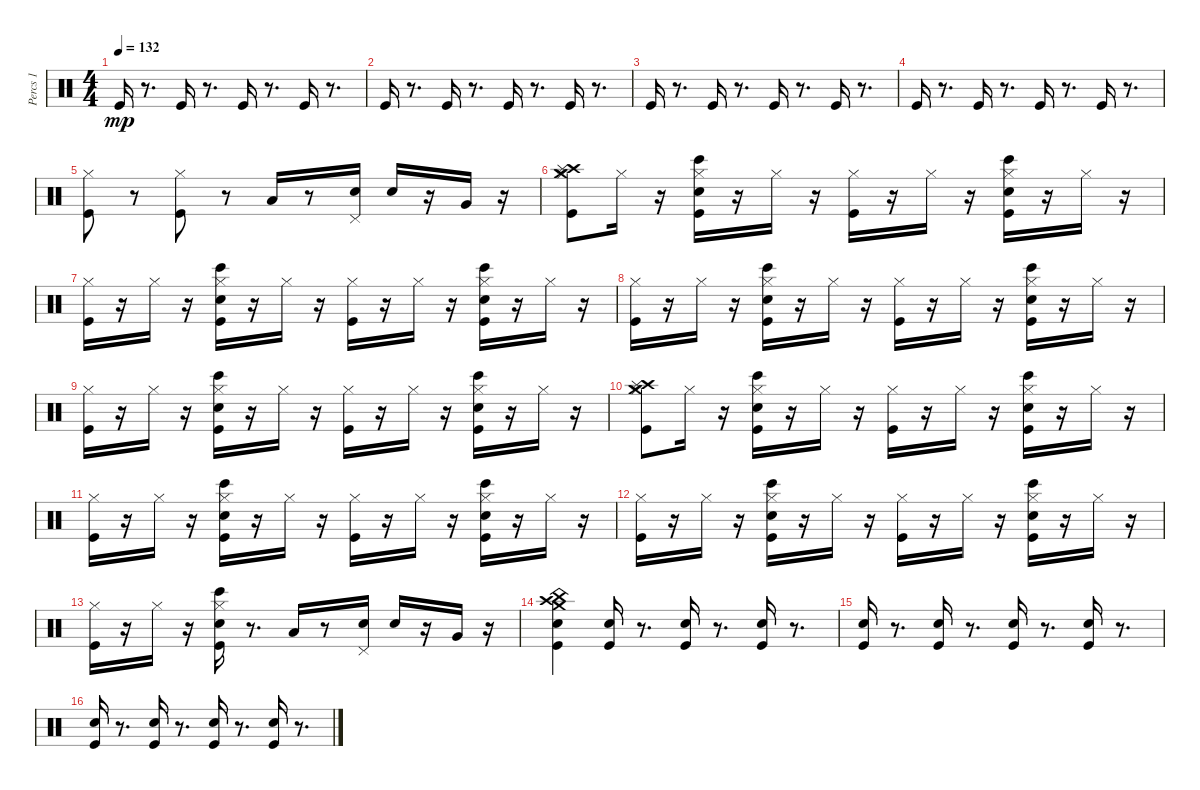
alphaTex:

\track ("Percs 1" "Percs 1") {instrument percussion}
\staff {score}
\articulation defaults
\ts (4 4)
\tempo 132
\clef neutral
\ks c "Kick (hit)".16{dy mp}
r.8{d} "Kick (hit)".16 r.8{d} "Kick (hit)".16 r.8{d} "Kick (hit)".16 r.8{d} |
"Kick (hit)".16 r.8{d} "Kick (hit)".16 r.8{d} "Kick (hit)".16 r.8{d} "Kick (hit)".16 r.8{d} |
"Kick (hit)".16 r.8{d} "Kick (hit)".16 r.8{d} "Kick (hit)".16 r.8{d} "Kick (hit)".16 r.8{d} |
"Kick (hit)".16 r.8{d} "Kick (hit)".16 r.8{d} "Kick (hit)".16 r.8{d} "Kick (hit)".16 r.8{d} |
("Kick (hit)" "Hi-Hat (closed)").8 r.8 ("Kick (hit)" "Hi-Hat (closed)").8 r.8 "Low Floor Tom (hit)".16 r.8 ("Snare (hit) 2" "Pedal Hi-Hat (hit)").16 "Snare (hit) 2".16 r.16 "Very Low Tom (hit)".16 r.16 |
("Kick (hit)" "Hi-Hat (closed)" "Crash high (hit)" "Crash medium (hit)" "Splash (hit)").8 "Hi-Hat (closed)".16 r.16 ("Hi-Hat (closed)" "Kick (hit)" "Electric Snare (hit)" "Bongo High (hit)").16 r.16 "Hi-Hat (closed)".16 r.16 ("Hi-Hat (closed)" "Kick (hit)").16 r.16 "Hi-Hat (closed)".16 r.16 ("Electric Snare (hit)" "Kick (hit)" "Bongo High (hit)" "Hi-Hat (closed)").16 r.16 "Hi-Hat (closed)".16 r.16 |
("Hi-Hat (closed)" "Kick (hit)").16 r.16 "Hi-Hat (closed)".16 r.16 ("Hi-Hat (closed)" "Bongo High (hit)" "Kick (hit)" "Electric Snare (hit)").16 r.16 "Hi-Hat (closed)".16 r.16 ("Kick (hit)" "Hi-Hat (closed)").16 r.16 "Hi-Hat (closed)".16 r.16 ("Electric Snare (hit)" "Kick (hit)" "Bongo High (hit)" "Hi-Hat (closed)").16 r.16 "Hi-Hat (closed)".16 r.16 |
("Kick (hit)" "Hi-Hat (closed)").16 r.16 "Hi-Hat (closed)".16 r.16 ("Hi-Hat (closed)" "Kick (hit)" "Electric Snare (hit)" "Bongo High (hit)").16 r.16 "Hi-Hat (closed)".16 r.16 ("Hi-Hat (closed)" "Kick (hit)").16 r.16 "Hi-Hat (closed)".16 r.16 ("Electric Snare (hit)" "Kick (hit)" "Bongo High (hit)" "Hi-Hat (closed)").16 r.16 "Hi-Hat (closed)".16 r.16 |
("Kick (hit)" "Hi-Hat (closed)").16 r.16 "Hi-Hat (closed)".16 r.16 ("Hi-Hat (closed)" "Bongo High (hit)" "Kick (hit)" "Electric Snare (hit)").16 r.16 "Hi-Hat (closed)".16 r.16 ("Kick (hit)" "Hi-Hat (closed)").16 r.16 "Hi-Hat (closed)".16 r.16 ("Electric Snare (hit)" "Kick (hit)" "Bongo High (hit)" "Hi-Hat (closed)").16 r.16 "Hi-Hat (closed)".16 r.16 |
("Kick (hit)" "Hi-Hat (closed)" "Crash high (hit)" "Crash medium (hit)" "Splash (hit)").8 "Hi-Hat (closed)".16 r.16 ("Hi-Hat (closed)" "Kick (hit)" "Electric Snare (hit)" "Bongo High (hit)").16 r.16 "Hi-Hat (closed)".16 r.16 ("Hi-Hat (closed)" "Kick (hit)").16 r.16 "Hi-Hat (closed)".16 r.16 ("Electric Snare (hit)" "Kick (hit)" "Bongo High (hit)" "Hi-Hat (closed)").16 r.16 "Hi-Hat (closed)".16 r.16 |
("Hi-Hat (closed)" "Kick (hit)").16 r.16 "Hi-Hat (closed)".16 r.16 ("Hi-Hat (closed)" "Bongo High (hit)" "Kick (hit)" "Electric Snare (hit)").16 r.16 "Hi-Hat (closed)".16 r.16 ("Kick (hit)" "Hi-Hat (closed)").16 r.16 "Hi-Hat (closed)".16 r.16 ("Electric Snare (hit)" "Kick (hit)" "Bongo High (hit)" "Hi-Hat (closed)").16 r.16 "Hi-Hat (closed)".16 r.16 |
("Kick (hit)" "Hi-Hat (closed)").16 r.16 "Hi-Hat (closed)".16 r.16 ("Hi-Hat (closed)" "Kick (hit)" "Electric Snare (hit)" "Bongo High (hit)").16 r.16 "Hi-Hat (closed)".16 r.16 ("Hi-Hat (closed)" "Kick (hit)").16 r.16 "Hi-Hat (closed)".16 r.16 ("Electric Snare (hit)" "Kick (hit)" "Bongo High (hit)" "Hi-Hat (closed)").16 r.16 "Hi-Hat (closed)".16 r.16 |
("Kick (hit)" "Hi-Hat (closed)").16 r.16 "Hi-Hat (closed)".16 r.16 ("Electric Snare (hit)" "Kick (hit)" "Bongo High (hit)" "Hi-Hat (closed)").16 r.8{d} "Low Floor Tom (hit)".16 r.8 ("Snare (hit) 2" "Pedal Hi-Hat (hit)").16 "Snare (hit) 2".16 r.16 "Very Low Tom (hit)".16 r.16 |
("Hand Clap (hit)" "Kick (hit)" "Crash high (hit)" "China (hit)" "Crash medium (hit)").4 ("Hand Clap (hit)" "Kick (hit)").16 r.8{d} ("Kick (hit)" "Hand Clap (hit)").16 r.8{d} ("Hand Clap (hit)" "Kick (hit)").16 r.8{d} |
("Hand Clap (hit)" "Kick (hit)").16 r.8{d} ("Hand Clap (hit)" "Kick (hit)").16 r.8{d} ("Kick (hit)" "Hand Clap (hit)").16 r.8{d} ("Hand Clap (hit)" "Kick (hit)").16 r.8{d} |
("Kick (hit)" "Hand Clap (hit)").16 r.8{d} ("Hand Clap (hit)" "Kick (hit)").16 r.8{d} ("Kick (hit)" "Hand Clap (hit)").16 r.8{d} ("Hand Clap (hit)" "Kick (hit)").16 r.8{d}
